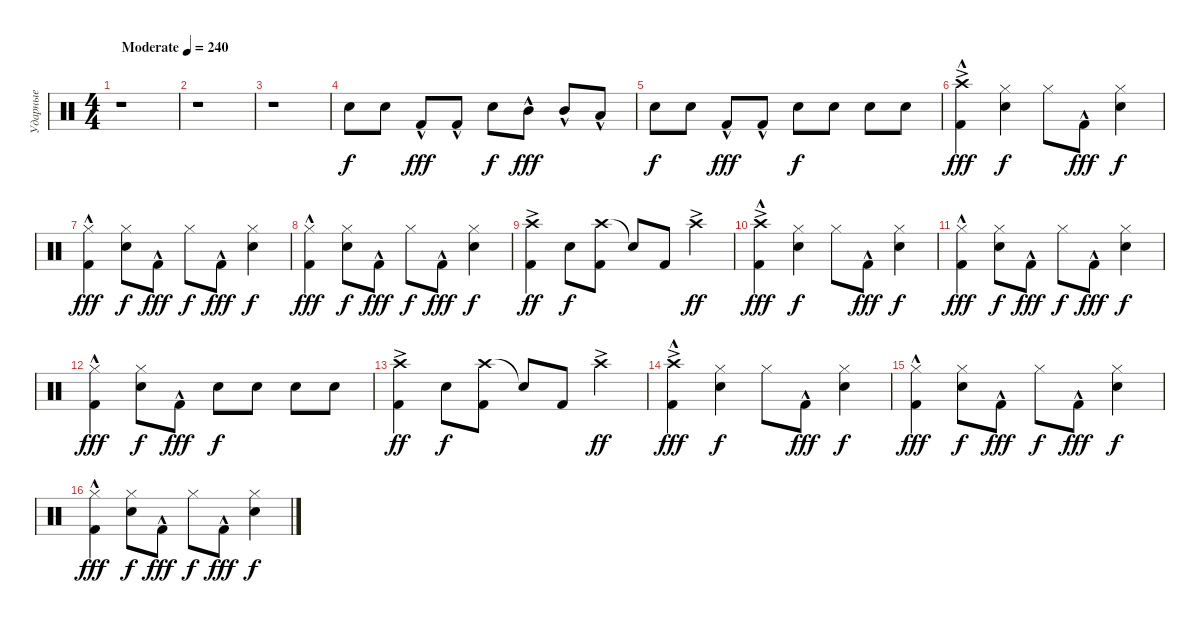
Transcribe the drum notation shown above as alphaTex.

\track ("Ударные" "Ударные") {instrument percussion}
\staff {score}
\articulation defaults
\ts (4 4)
\tempo (240 "Moderate")
\clef neutral
\ks c
r.1{dy f} |
r.1 |
r.1 |
"Snare (hit) 2".8 "Snare (hit) 2".8 "Kick (hit) 2"{hac}.8{dy fff} "Kick (hit) 2"{hac}.8 "Snare (hit) 2".8{dy f} "Mid Tom (hit)"{hac}.8{dy fff} "Mid Tom (hit)"{hac}.8 "Low Tom (hit)"{hac}.8 |
"Snare (hit) 2".8{dy f} "Snare (hit) 2".8 "Kick (hit) 2"{hac}.8{dy fff} "Kick (hit) 2"{hac}.8 "Snare (hit) 2".8{dy f} "Snare (hit) 2".8 "Snare (hit) 2".8 "Snare (hit) 2".8 |
("Crash high (hit)"{ac} "Kick (hit) 2"{hac}).4{dy fff} ("Hi-Hat (closed)" "Snare (hit) 2").4{dy f} "Hi-Hat (closed)".8 "Kick (hit) 2"{hac}.8{dy fff} ("Hi-Hat (closed)" "Snare (hit) 2").4{dy f} |
("Hi-Hat (closed)" "Kick (hit) 2"{hac}).4{dy fff} ("Hi-Hat (closed)" "Snare (hit) 2").8{dy f} "Kick (hit) 2"{hac}.8{dy fff} "Hi-Hat (closed)".8{dy f} "Kick (hit) 2"{hac}.8{dy fff} ("Hi-Hat (closed)" "Snare (hit) 2").4{dy f} |
("Hi-Hat (closed)" "Kick (hit) 2"{hac}).4{dy fff} ("Hi-Hat (closed)" "Snare (hit) 2").8{dy f} "Kick (hit) 2"{hac}.8{dy fff} "Hi-Hat (closed)".8{dy f} "Kick (hit) 2"{hac}.8{dy fff} ("Hi-Hat (closed)" "Snare (hit) 2").4{dy f} |
("Crash high (hit)"{ac} "Kick (hit) 2").4{dy ff} "Snare (hit) 2".8{dy f} ("Crash high (hit)" "Kick (hit) 2").8 "Snare (hit)"{t}.8 "Kick (hit) 2".8 "Crash high (hit)"{ac}.4{dy ff} |
("Crash high (hit)"{ac} "Kick (hit) 2"{hac}).4{dy fff} ("Hi-Hat (closed)" "Snare (hit) 2").4{dy f} "Hi-Hat (closed)".8 "Kick (hit) 2"{hac}.8{dy fff} ("Hi-Hat (closed)" "Snare (hit) 2").4{dy f} |
("Hi-Hat (closed)" "Kick (hit) 2"{hac}).4{dy fff} ("Hi-Hat (closed)" "Snare (hit) 2").8{dy f} "Kick (hit) 2"{hac}.8{dy fff} "Hi-Hat (closed)".8{dy f} "Kick (hit) 2"{hac}.8{dy fff} ("Hi-Hat (closed)" "Snare (hit) 2").4{dy f} |
("Hi-Hat (closed)" "Kick (hit) 2"{hac}).4{dy fff} ("Hi-Hat (closed)" "Snare (hit) 2").8{dy f} "Kick (hit) 2"{hac}.8{dy fff} "Snare (hit) 2".8{dy f} "Snare (hit) 2".8 "Snare (hit) 2".8 "Snare (hit) 2".8 |
("Crash high (hit)"{ac} "Kick (hit) 2").4{dy ff} "Snare (hit) 2".8{dy f} ("Crash high (hit)" "Kick (hit) 2").8 "Snare (hit)"{t}.8 "Kick (hit) 2".8 "Crash high (hit)"{ac}.4{dy ff} |
("Crash high (hit)"{ac} "Kick (hit) 2"{hac}).4{dy fff} ("Hi-Hat (closed)" "Snare (hit) 2").4{dy f} "Hi-Hat (closed)".8 "Kick (hit) 2"{hac}.8{dy fff} ("Hi-Hat (closed)" "Snare (hit) 2").4{dy f} |
("Hi-Hat (closed)" "Kick (hit) 2"{hac}).4{dy fff} ("Hi-Hat (closed)" "Snare (hit) 2").8{dy f} "Kick (hit) 2"{hac}.8{dy fff} "Hi-Hat (closed)".8{dy f} "Kick (hit) 2"{hac}.8{dy fff} ("Hi-Hat (closed)" "Snare (hit) 2").4{dy f} |
("Hi-Hat (closed)" "Kick (hit) 2"{hac}).4{dy fff} ("Hi-Hat (closed)" "Snare (hit) 2").8{dy f} "Kick (hit) 2"{hac}.8{dy fff} "Hi-Hat (closed)".8{dy f} "Kick (hit) 2"{hac}.8{dy fff} ("Hi-Hat (closed)" "Snare (hit) 2").4{dy f}
